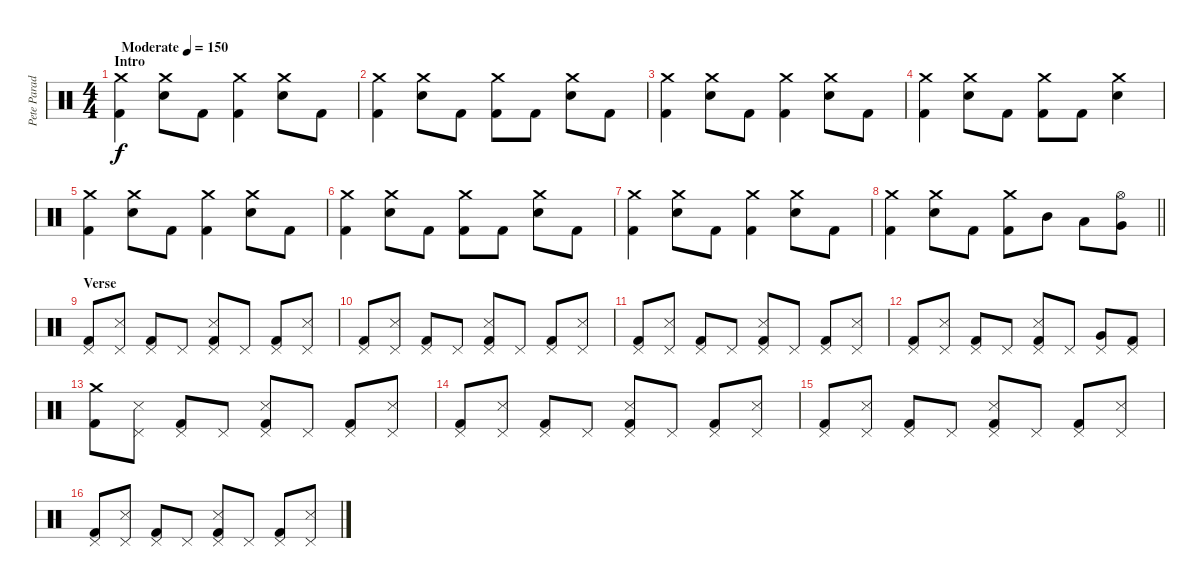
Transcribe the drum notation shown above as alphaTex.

\track ("Pete Parada - Drums" "Pete Parad") {instrument percussion}
\staff {score}
\articulation defaults
\ts (4 4)
\section ("" "Intro")
\tempo (150 "Moderate")
\clef neutral
\ks c
("Crash medium (hit)" "Kick (hit) 2").4{dy f} ("Crash medium (hit)" "Electric Snare (hit)").8 "Kick (hit) 2".8 ("Crash medium (hit)" "Kick (hit) 2").4 ("Crash medium (hit)" "Electric Snare (hit)").8 "Kick (hit) 2".8 |
("Crash medium (hit)" "Kick (hit) 2").4 ("Crash medium (hit)" "Electric Snare (hit)").8 "Kick (hit) 2".8 ("Crash medium (hit)" "Kick (hit) 2").8 "Kick (hit) 2".8 ("Crash medium (hit)" "Electric Snare (hit)").8 "Kick (hit) 2".8 |
("Crash medium (hit)" "Kick (hit) 2").4 ("Crash medium (hit)" "Electric Snare (hit)").8 "Kick (hit) 2".8 ("Crash medium (hit)" "Kick (hit) 2").4 ("Crash medium (hit)" "Electric Snare (hit)").8 "Kick (hit) 2".8 |
("Crash medium (hit)" "Kick (hit) 2").4 ("Crash medium (hit)" "Electric Snare (hit)").8 "Kick (hit) 2".8 ("Crash medium (hit)" "Kick (hit) 2").8 "Kick (hit) 2".8 ("Crash medium (hit)" "Electric Snare (hit)").4 |
("Crash medium (hit)" "Kick (hit) 2").4 ("Crash medium (hit)" "Electric Snare (hit)").8 "Kick (hit) 2".8 ("Crash medium (hit)" "Kick (hit) 2").4 ("Crash medium (hit)" "Electric Snare (hit)").8 "Kick (hit) 2".8 |
("Crash medium (hit)" "Kick (hit) 2").4 ("Crash medium (hit)" "Electric Snare (hit)").8 "Kick (hit) 2".8 ("Crash medium (hit)" "Kick (hit) 2").8 "Kick (hit) 2".8 ("Crash medium (hit)" "Electric Snare (hit)").8 "Kick (hit) 2".8 |
("Crash medium (hit)" "Kick (hit) 2").4 ("Crash medium (hit)" "Electric Snare (hit)").8 "Kick (hit) 2".8 ("Crash medium (hit)" "Kick (hit) 2").4 ("Crash medium (hit)" "Electric Snare (hit)").8 "Kick (hit) 2".8 |
\barLineRight lightlight
("Crash medium (hit)" "Kick (hit) 2").4 ("Crash medium (hit)" "Electric Snare (hit)").8 "Kick (hit) 2".8 ("Crash medium (hit)" "Kick (hit) 2").8 "Mid Tom (hit)".8 "Low Tom (hit)".8 ("Hi-Hat (open)" "Very Low Tom (hit)").8 |
\section ("" "Verse")
("Pedal Hi-Hat (hit)" "Kick (hit) 2").8 ("Pedal Hi-Hat (hit)" "Snare (side stick) 3").8 ("Pedal Hi-Hat (hit)" "Kick (hit) 2").8 "Pedal Hi-Hat (hit)".8 ("Pedal Hi-Hat (hit)" "Snare (side stick) 3" "Kick (hit) 2").8 "Pedal Hi-Hat (hit)".8 ("Pedal Hi-Hat (hit)" "Kick (hit) 2").8 ("Pedal Hi-Hat (hit)" "Snare (side stick) 3").8 |
("Pedal Hi-Hat (hit)" "Kick (hit) 2").8 ("Pedal Hi-Hat (hit)" "Snare (side stick) 3").8 ("Pedal Hi-Hat (hit)" "Kick (hit) 2").8 "Pedal Hi-Hat (hit)".8 ("Pedal Hi-Hat (hit)" "Snare (side stick) 3" "Kick (hit) 2").8 "Pedal Hi-Hat (hit)".8 ("Pedal Hi-Hat (hit)" "Kick (hit) 2").8 ("Pedal Hi-Hat (hit)" "Snare (side stick) 3").8 |
("Pedal Hi-Hat (hit)" "Kick (hit) 2").8 ("Pedal Hi-Hat (hit)" "Snare (side stick) 3").8 ("Pedal Hi-Hat (hit)" "Kick (hit) 2").8 "Pedal Hi-Hat (hit)".8 ("Pedal Hi-Hat (hit)" "Snare (side stick) 3" "Kick (hit) 2").8 "Pedal Hi-Hat (hit)".8 ("Pedal Hi-Hat (hit)" "Kick (hit) 2").8 ("Pedal Hi-Hat (hit)" "Snare (side stick) 3").8 |
("Pedal Hi-Hat (hit)" "Kick (hit) 2").8 ("Pedal Hi-Hat (hit)" "Snare (side stick) 3").8 ("Pedal Hi-Hat (hit)" "Kick (hit) 2").8 "Pedal Hi-Hat (hit)".8 ("Pedal Hi-Hat (hit)" "Snare (side stick) 3" "Kick (hit) 2").8 "Pedal Hi-Hat (hit)".8 ("Pedal Hi-Hat (hit)" "Very Low Tom (hit)").8 ("Pedal Hi-Hat (hit)" "Kick (hit) 2").8 |
("Crash medium (hit)" "Kick (hit) 2").8 ("Pedal Hi-Hat (hit)" "Snare (side stick) 3").8 ("Pedal Hi-Hat (hit)" "Kick (hit) 2").8 "Pedal Hi-Hat (hit)".8 ("Pedal Hi-Hat (hit)" "Snare (side stick) 3" "Kick (hit) 2").8 "Pedal Hi-Hat (hit)".8 ("Pedal Hi-Hat (hit)" "Kick (hit) 2").8 ("Pedal Hi-Hat (hit)" "Snare (side stick) 3").8 |
("Pedal Hi-Hat (hit)" "Kick (hit) 2").8 ("Pedal Hi-Hat (hit)" "Snare (side stick) 3").8 ("Pedal Hi-Hat (hit)" "Kick (hit) 2").8 "Pedal Hi-Hat (hit)".8 ("Pedal Hi-Hat (hit)" "Snare (side stick) 3" "Kick (hit) 2").8 "Pedal Hi-Hat (hit)".8 ("Pedal Hi-Hat (hit)" "Kick (hit) 2").8 ("Pedal Hi-Hat (hit)" "Snare (side stick) 3").8 |
("Pedal Hi-Hat (hit)" "Kick (hit) 2").8 ("Pedal Hi-Hat (hit)" "Snare (side stick) 3").8 ("Pedal Hi-Hat (hit)" "Kick (hit) 2").8 "Pedal Hi-Hat (hit)".8 ("Pedal Hi-Hat (hit)" "Snare (side stick) 3" "Kick (hit) 2").8 "Pedal Hi-Hat (hit)".8 ("Pedal Hi-Hat (hit)" "Kick (hit) 2").8 ("Pedal Hi-Hat (hit)" "Snare (side stick) 3").8 |
("Pedal Hi-Hat (hit)" "Kick (hit) 2").8 ("Pedal Hi-Hat (hit)" "Snare (side stick) 3").8 ("Pedal Hi-Hat (hit)" "Kick (hit) 2").8 "Pedal Hi-Hat (hit)".8 ("Pedal Hi-Hat (hit)" "Snare (side stick) 3" "Kick (hit) 2").8 "Pedal Hi-Hat (hit)".8 ("Pedal Hi-Hat (hit)" "Kick (hit) 2").8 ("Pedal Hi-Hat (hit)" "Snare (side stick) 3").8
